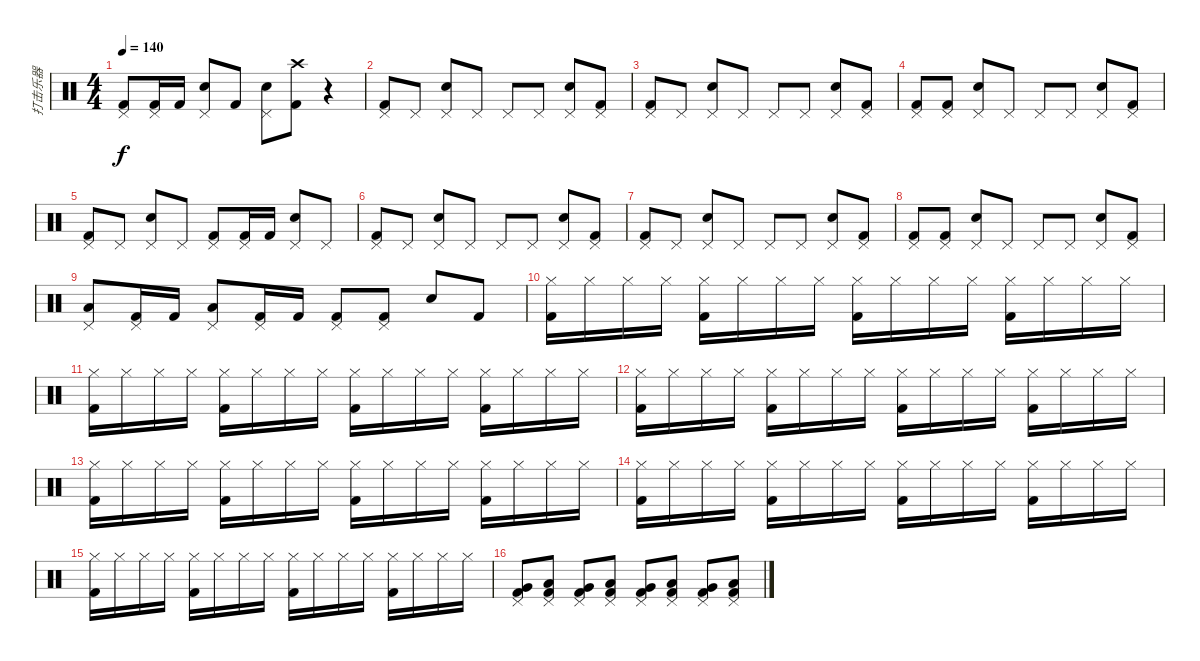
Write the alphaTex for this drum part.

\track ("打击乐器" "打击乐器") {instrument percussion}
\staff {score}
\articulation defaults
\ts (4 4)
\tempo 140
\clef neutral
\ks c
("Pedal Hi-Hat (hit)" "Kick (hit) 2").8{dy f} ("Pedal Hi-Hat (hit)" "Kick (hit) 2").16 "Kick (hit) 2".16 ("Pedal Hi-Hat (hit)" "Electric Snare (hit)").8 "Kick (hit) 2".8 ("Pedal Hi-Hat (hit)" "Electric Snare (hit)").8 ("Crash high (hit)" "Kick (hit) 2").8 r.4 |
("Pedal Hi-Hat (hit)" "Kick (hit) 2").8 "Pedal Hi-Hat (hit)".8 ("Pedal Hi-Hat (hit)" "Electric Snare (hit)").8 "Pedal Hi-Hat (hit)".8 "Pedal Hi-Hat (hit)".8 "Pedal Hi-Hat (hit)".8 ("Pedal Hi-Hat (hit)" "Electric Snare (hit)").8 ("Pedal Hi-Hat (hit)" "Kick (hit) 2").8 |
("Pedal Hi-Hat (hit)" "Kick (hit) 2").8 "Pedal Hi-Hat (hit)".8 ("Pedal Hi-Hat (hit)" "Electric Snare (hit)").8 "Pedal Hi-Hat (hit)".8 "Pedal Hi-Hat (hit)".8 "Pedal Hi-Hat (hit)".8 ("Pedal Hi-Hat (hit)" "Electric Snare (hit)").8 ("Pedal Hi-Hat (hit)" "Kick (hit) 2").8 |
("Pedal Hi-Hat (hit)" "Kick (hit) 2").8 ("Pedal Hi-Hat (hit)" "Kick (hit) 2").8 ("Pedal Hi-Hat (hit)" "Electric Snare (hit)").8 "Pedal Hi-Hat (hit)".8 "Pedal Hi-Hat (hit)".8 "Pedal Hi-Hat (hit)".8 ("Pedal Hi-Hat (hit)" "Electric Snare (hit)").8 ("Pedal Hi-Hat (hit)" "Kick (hit) 2").8 |
("Pedal Hi-Hat (hit)" "Kick (hit) 2").8 "Pedal Hi-Hat (hit)".8 ("Pedal Hi-Hat (hit)" "Electric Snare (hit)").8 "Pedal Hi-Hat (hit)".8 ("Pedal Hi-Hat (hit)" "Kick (hit) 2").8 ("Pedal Hi-Hat (hit)" "Kick (hit) 2").16 "Kick (hit) 2".16 ("Pedal Hi-Hat (hit)" "Electric Snare (hit)").8 "Pedal Hi-Hat (hit)".8 |
("Pedal Hi-Hat (hit)" "Kick (hit) 2").8 "Pedal Hi-Hat (hit)".8 ("Pedal Hi-Hat (hit)" "Electric Snare (hit)").8 "Pedal Hi-Hat (hit)".8 "Pedal Hi-Hat (hit)".8 "Pedal Hi-Hat (hit)".8 ("Pedal Hi-Hat (hit)" "Electric Snare (hit)").8 ("Pedal Hi-Hat (hit)" "Kick (hit) 2").8 |
("Pedal Hi-Hat (hit)" "Kick (hit) 2").8 "Pedal Hi-Hat (hit)".8 ("Pedal Hi-Hat (hit)" "Electric Snare (hit)").8 "Pedal Hi-Hat (hit)".8 "Pedal Hi-Hat (hit)".8 "Pedal Hi-Hat (hit)".8 ("Pedal Hi-Hat (hit)" "Electric Snare (hit)").8 ("Pedal Hi-Hat (hit)" "Kick (hit) 2").8 |
("Pedal Hi-Hat (hit)" "Kick (hit) 2").8 ("Pedal Hi-Hat (hit)" "Kick (hit) 2").8 ("Pedal Hi-Hat (hit)" "Electric Snare (hit)").8 "Pedal Hi-Hat (hit)".8 "Pedal Hi-Hat (hit)".8 "Pedal Hi-Hat (hit)".8 ("Pedal Hi-Hat (hit)" "Electric Snare (hit)").8 ("Pedal Hi-Hat (hit)" "Kick (hit) 2").8 |
("Pedal Hi-Hat (hit)" "Low Floor Tom (hit)").8 ("Pedal Hi-Hat (hit)" "Kick (hit) 2").16 "Kick (hit) 2".16 ("Pedal Hi-Hat (hit)" "Low Floor Tom (hit)").8 ("Pedal Hi-Hat (hit)" "Kick (hit) 2").16 "Kick (hit) 2".16 ("Pedal Hi-Hat (hit)" "Kick (hit) 2").8 ("Pedal Hi-Hat (hit)" "Kick (hit) 2").8 "Electric Snare (hit)".8 "Kick (hit) 2".8 |
("Hi-Hat (closed)" "Kick (hit) 2").16 "Hi-Hat (closed)".16 "Hi-Hat (closed)".16 "Hi-Hat (closed)".16 ("Hi-Hat (closed)" "Kick (hit) 2").16 "Hi-Hat (closed)".16 "Hi-Hat (closed)".16 "Hi-Hat (closed)".16 ("Hi-Hat (closed)" "Kick (hit) 2").16 "Hi-Hat (closed)".16 "Hi-Hat (closed)".16 "Hi-Hat (closed)".16 ("Hi-Hat (closed)" "Kick (hit) 2").16 "Hi-Hat (closed)".16 "Hi-Hat (closed)".16 "Hi-Hat (closed)".16 |
("Hi-Hat (closed)" "Kick (hit) 2").16 "Hi-Hat (closed)".16 "Hi-Hat (closed)".16 "Hi-Hat (closed)".16 ("Hi-Hat (closed)" "Kick (hit) 2").16 "Hi-Hat (closed)".16 "Hi-Hat (closed)".16 "Hi-Hat (closed)".16 ("Hi-Hat (closed)" "Kick (hit) 2").16 "Hi-Hat (closed)".16 "Hi-Hat (closed)".16 "Hi-Hat (closed)".16 ("Hi-Hat (closed)" "Kick (hit) 2").16 "Hi-Hat (closed)".16 "Hi-Hat (closed)".16 "Hi-Hat (closed)".16 |
("Hi-Hat (closed)" "Kick (hit) 2").16 "Hi-Hat (closed)".16 "Hi-Hat (closed)".16 "Hi-Hat (closed)".16 ("Hi-Hat (closed)" "Kick (hit) 2").16 "Hi-Hat (closed)".16 "Hi-Hat (closed)".16 "Hi-Hat (closed)".16 ("Hi-Hat (closed)" "Kick (hit) 2").16 "Hi-Hat (closed)".16 "Hi-Hat (closed)".16 "Hi-Hat (closed)".16 ("Hi-Hat (closed)" "Kick (hit) 2").16 "Hi-Hat (closed)".16 "Hi-Hat (closed)".16 "Hi-Hat (closed)".16 |
("Hi-Hat (closed)" "Kick (hit) 2").16 "Hi-Hat (closed)".16 "Hi-Hat (closed)".16 "Hi-Hat (closed)".16 ("Hi-Hat (closed)" "Kick (hit) 2").16 "Hi-Hat (closed)".16 "Hi-Hat (closed)".16 "Hi-Hat (closed)".16 ("Hi-Hat (closed)" "Kick (hit) 2").16 "Hi-Hat (closed)".16 "Hi-Hat (closed)".16 "Hi-Hat (closed)".16 ("Hi-Hat (closed)" "Kick (hit) 2").16 "Hi-Hat (closed)".16 "Hi-Hat (closed)".16 "Hi-Hat (closed)".16 |
("Hi-Hat (closed)" "Kick (hit) 2").16 "Hi-Hat (closed)".16 "Hi-Hat (closed)".16 "Hi-Hat (closed)".16 ("Hi-Hat (closed)" "Kick (hit) 2").16 "Hi-Hat (closed)".16 "Hi-Hat (closed)".16 "Hi-Hat (closed)".16 ("Hi-Hat (closed)" "Kick (hit) 2").16 "Hi-Hat (closed)".16 "Hi-Hat (closed)".16 "Hi-Hat (closed)".16 ("Hi-Hat (closed)" "Kick (hit) 2").16 "Hi-Hat (closed)".16 "Hi-Hat (closed)".16 "Hi-Hat (closed)".16 |
("Hi-Hat (closed)" "Kick (hit) 2").16 "Hi-Hat (closed)".16 "Hi-Hat (closed)".16 "Hi-Hat (closed)".16 ("Hi-Hat (closed)" "Kick (hit) 2").16 "Hi-Hat (closed)".16 "Hi-Hat (closed)".16 "Hi-Hat (closed)".16 ("Hi-Hat (closed)" "Kick (hit) 2").16 "Hi-Hat (closed)".16 "Hi-Hat (closed)".16 "Hi-Hat (closed)".16 ("Hi-Hat (closed)" "Kick (hit) 2").16 "Hi-Hat (closed)".16 "Hi-Hat (closed)".16 "Hi-Hat (closed)".16 |
("Pedal Hi-Hat (hit)" "Very Low Tom (hit)" "Kick (hit) 2").8 ("Pedal Hi-Hat (hit)" "Low Floor Tom (hit)" "Kick (hit) 2").8 ("Pedal Hi-Hat (hit)" "Very Low Tom (hit)" "Kick (hit) 2").8 ("Pedal Hi-Hat (hit)" "Low Floor Tom (hit)" "Kick (hit) 2").8 ("Pedal Hi-Hat (hit)" "Very Low Tom (hit)" "Kick (hit) 2").8 ("Pedal Hi-Hat (hit)" "Low Floor Tom (hit)" "Kick (hit) 2").8 ("Pedal Hi-Hat (hit)" "Very Low Tom (hit)" "Kick (hit) 2").8 ("Pedal Hi-Hat (hit)" "Low Floor Tom (hit)" "Kick (hit) 2").8
